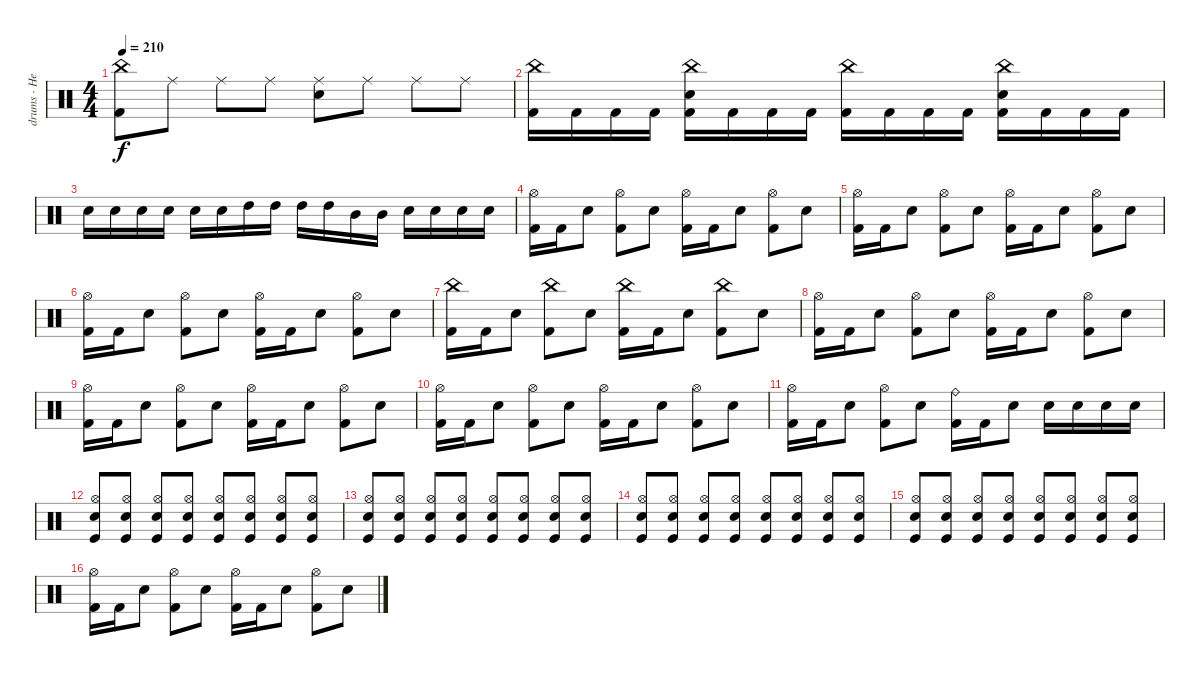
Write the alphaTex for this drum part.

\track ("drums - Heikki" "drums - He") {instrument percussion}
\staff {score}
\articulation defaults
\ts (4 4)
\tempo 210
\clef neutral
\ks c
("China (hit)" "Kick (hit) 2").8{dy f} "Ride (middle)".8 "Ride (middle)".8 "Ride (middle)".8 ("Ride (middle)" "Snare (hit) 2").8 "Ride (middle)".8 "Ride (middle)".8 "Ride (middle)".8 |
("China (hit)" "Kick (hit) 2").16 "Kick (hit) 2".16 "Kick (hit) 2".16 "Kick (hit) 2".16 ("China (hit)" "Snare (hit) 2" "Kick (hit) 2").16 "Kick (hit) 2".16 "Kick (hit) 2".16 "Kick (hit) 2".16 ("China (hit)" "Kick (hit) 2").16 "Kick (hit) 2".16 "Kick (hit) 2".16 "Kick (hit) 2".16 ("China (hit)" "Snare (hit) 2" "Kick (hit) 2").16 "Kick (hit) 2".16 "Kick (hit) 2".16 "Kick (hit) 2".16 |
"Snare (hit) 2".16 "Snare (hit) 2".16 "Snare (hit) 2".16 "Snare (hit) 2".16 "Snare (hit) 2".16 "Snare (hit) 2".16 "High Tom (hit)".16 "High Tom (hit)".16 "High Tom (hit)".16 "High Tom (hit)".16 "Mid Tom (hit)".16 "Mid Tom (hit)".16 "Snare (hit) 2".16 "Snare (hit) 2".16 "Snare (hit) 2".16 "Snare (hit) 2".16 |
("Hi-Hat (open)" "Kick (hit) 2").16 "Kick (hit) 2".16 "Snare (hit) 2".8 ("Hi-Hat (open)" "Kick (hit) 2").8 "Snare (hit) 2".8 ("Hi-Hat (open)" "Kick (hit) 2").16 "Kick (hit) 2".16 "Snare (hit) 2".8 ("Hi-Hat (open)" "Kick (hit) 2").8 "Snare (hit) 2".8 |
("Hi-Hat (open)" "Kick (hit) 2").16 "Kick (hit) 2".16 "Snare (hit) 2".8 ("Hi-Hat (open)" "Kick (hit) 2").8 "Snare (hit) 2".8 ("Hi-Hat (open)" "Kick (hit) 2").16 "Kick (hit) 2".16 "Snare (hit) 2".8 ("Hi-Hat (open)" "Kick (hit) 2").8 "Snare (hit) 2".8 |
("Hi-Hat (open)" "Kick (hit) 2").16 "Kick (hit) 2".16 "Snare (hit) 2".8 ("Hi-Hat (open)" "Kick (hit) 2").8 "Snare (hit) 2".8 ("Hi-Hat (open)" "Kick (hit) 2").16 "Kick (hit) 2".16 "Snare (hit) 2".8 ("Hi-Hat (open)" "Kick (hit) 2").8 "Snare (hit) 2".8 |
("China (hit)" "Kick (hit) 2").16 "Kick (hit) 2".16 "Snare (hit) 2".8 ("China (hit)" "Kick (hit) 2").8 "Snare (hit) 2".8 ("China (hit)" "Kick (hit) 2").16 "Kick (hit) 2".16 "Snare (hit) 2".8 ("China (hit)" "Kick (hit) 2").8 "Snare (hit) 2".8 |
("Hi-Hat (open)" "Kick (hit) 2").16 "Kick (hit) 2".16 "Snare (hit) 2".8 ("Hi-Hat (open)" "Kick (hit) 2").8 "Snare (hit) 2".8 ("Hi-Hat (open)" "Kick (hit) 2").16 "Kick (hit) 2".16 "Snare (hit) 2".8 ("Hi-Hat (open)" "Kick (hit) 2").8 "Snare (hit) 2".8 |
("Hi-Hat (open)" "Kick (hit) 2").16 "Kick (hit) 2".16 "Snare (hit) 2".8 ("Hi-Hat (open)" "Kick (hit) 2").8 "Snare (hit) 2".8 ("Hi-Hat (open)" "Kick (hit) 2").16 "Kick (hit) 2".16 "Snare (hit) 2".8 ("Hi-Hat (open)" "Kick (hit) 2").8 "Snare (hit) 2".8 |
("Hi-Hat (open)" "Kick (hit) 2").16 "Kick (hit) 2".16 "Snare (hit) 2".8 ("Hi-Hat (open)" "Kick (hit) 2").8 "Snare (hit) 2".8 ("Hi-Hat (open)" "Kick (hit) 2").16 "Kick (hit) 2".16 "Snare (hit) 2".8 ("Hi-Hat (open)" "Kick (hit) 2").8 "Snare (hit) 2".8 |
("Hi-Hat (open)" "Kick (hit) 2").16 "Kick (hit) 2".16 "Snare (hit) 2".8 ("Hi-Hat (open)" "Kick (hit) 2").8 "Snare (hit) 2".8 ("Ride (bell)" "Kick (hit) 2").16 "Kick (hit) 2".16 "Snare (hit) 2".8 "Snare (hit) 2".16 "Snare (hit) 2".16 "Snare (hit) 2".16 "Snare (hit) 2".16 |
("Hi-Hat (open)" "Snare (hit) 2" "Kick (hit)").8 ("Hi-Hat (open)" "Snare (hit) 2" "Kick (hit)").8 ("Hi-Hat (open)" "Snare (hit) 2" "Kick (hit)").8 ("Hi-Hat (open)" "Snare (hit) 2" "Kick (hit)").8 ("Hi-Hat (open)" "Snare (hit) 2" "Kick (hit)").8 ("Hi-Hat (open)" "Snare (hit) 2" "Kick (hit)").8 ("Hi-Hat (open)" "Snare (hit) 2" "Kick (hit)").8 ("Hi-Hat (open)" "Snare (hit) 2" "Kick (hit)").8 |
("Hi-Hat (open)" "Snare (hit) 2" "Kick (hit)").8 ("Hi-Hat (open)" "Snare (hit) 2" "Kick (hit)").8 ("Hi-Hat (open)" "Snare (hit) 2" "Kick (hit)").8 ("Hi-Hat (open)" "Snare (hit) 2" "Kick (hit)").8 ("Hi-Hat (open)" "Snare (hit) 2" "Kick (hit)").8 ("Hi-Hat (open)" "Snare (hit) 2" "Kick (hit)").8 ("Hi-Hat (open)" "Snare (hit) 2" "Kick (hit)").8 ("Hi-Hat (open)" "Snare (hit) 2" "Kick (hit)").8 |
("Hi-Hat (open)" "Snare (hit) 2" "Kick (hit)").8 ("Hi-Hat (open)" "Snare (hit) 2" "Kick (hit)").8 ("Hi-Hat (open)" "Snare (hit) 2" "Kick (hit)").8 ("Hi-Hat (open)" "Snare (hit) 2" "Kick (hit)").8 ("Hi-Hat (open)" "Snare (hit) 2" "Kick (hit)").8 ("Hi-Hat (open)" "Snare (hit) 2" "Kick (hit)").8 ("Hi-Hat (open)" "Snare (hit) 2" "Kick (hit)").8 ("Hi-Hat (open)" "Snare (hit) 2" "Kick (hit)").8 |
("Hi-Hat (open)" "Snare (hit) 2" "Kick (hit)").8 ("Hi-Hat (open)" "Snare (hit) 2" "Kick (hit)").8 ("Hi-Hat (open)" "Snare (hit) 2" "Kick (hit)").8 ("Hi-Hat (open)" "Snare (hit) 2" "Kick (hit)").8 ("Hi-Hat (open)" "Snare (hit) 2" "Kick (hit)").8 ("Hi-Hat (open)" "Snare (hit) 2" "Kick (hit)").8 ("Hi-Hat (open)" "Snare (hit) 2" "Kick (hit)").8 ("Hi-Hat (open)" "Snare (hit) 2" "Kick (hit)").8 |
("Hi-Hat (open)" "Kick (hit) 2").16 "Kick (hit) 2".16 "Snare (hit) 2".8 ("Hi-Hat (open)" "Kick (hit) 2").8 "Snare (hit) 2".8 ("Hi-Hat (open)" "Kick (hit) 2").16 "Kick (hit) 2".16 "Snare (hit) 2".8 ("Hi-Hat (open)" "Kick (hit) 2").8 "Snare (hit) 2".8
